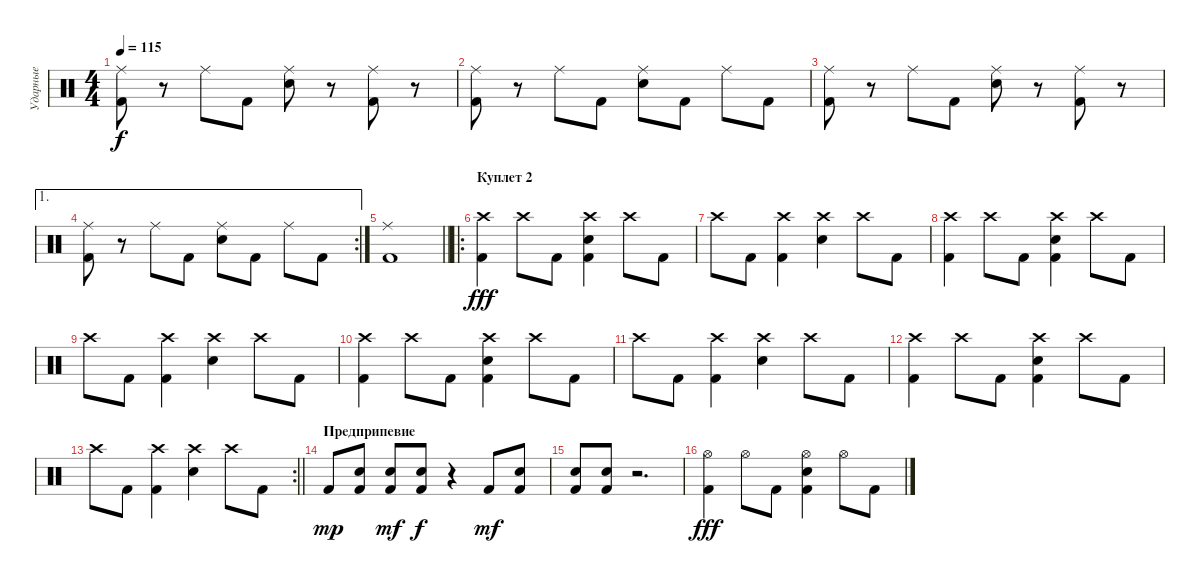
\track ("Ударные" "Ударные") {instrument percussion}
\staff {score}
\articulation defaults
\ts (4 4)
\tempo 115
\clef neutral
\ks c
("Ride (middle)" "Kick (hit) 2").8{dy f} r.8 "Ride (middle)".8 "Kick (hit) 2".8 ("Snare (hit) 2" "Ride (middle)").8 r.8 ("Ride (middle)" "Kick (hit) 2").8 r.8 |
("Ride (middle)" "Kick (hit) 2").8 r.8 "Ride (middle)".8 "Kick (hit) 2".8 ("Snare (hit) 2" "Ride (middle)").8 "Kick (hit) 2".8 "Ride (middle)".8 "Kick (hit) 2".8 |
("Ride (middle)" "Kick (hit) 2").8 r.8 "Ride (middle)".8 "Kick (hit) 2".8 ("Snare (hit) 2" "Ride (middle)").8 r.8 ("Ride (middle)" "Kick (hit) 2").8 r.8 |
\ae 1
\rc 2
("Ride (middle)" "Kick (hit) 2").8 r.8 "Ride (middle)".8 "Kick (hit) 2".8 ("Snare (hit) 2" "Ride (middle)").8 "Kick (hit) 2".8 "Ride (middle)".8 "Kick (hit) 2".8 |
\barLineRight lightlight
("Ride (middle)" "Kick (hit) 2").1 |
\ro
\section ("" "Куплет 2")
("Crash high (hit)" "Kick (hit) 2").4{dy fff} "Crash high (hit)".8 "Kick (hit) 2".8 ("Crash high (hit)" "Snare (hit) 2" "Kick (hit) 2").4 "Crash high (hit)".8 "Kick (hit) 2".8 |
"Crash high (hit)".8 "Kick (hit) 2".8 ("Crash high (hit)" "Kick (hit) 2").4 ("Crash high (hit)" "Snare (hit) 2").4 "Crash high (hit)".8 "Kick (hit) 2".8 |
("Crash high (hit)" "Kick (hit) 2").4 "Crash high (hit)".8 "Kick (hit) 2".8 ("Crash high (hit)" "Snare (hit) 2" "Kick (hit) 2").4 "Crash high (hit)".8 "Kick (hit) 2".8 |
"Crash high (hit)".8 "Kick (hit) 2".8 ("Crash high (hit)" "Kick (hit) 2").4 ("Crash high (hit)" "Snare (hit) 2").4 "Crash high (hit)".8 "Kick (hit) 2".8 |
("Crash high (hit)" "Kick (hit) 2").4 "Crash high (hit)".8 "Kick (hit) 2".8 ("Crash high (hit)" "Snare (hit) 2" "Kick (hit) 2").4 "Crash high (hit)".8 "Kick (hit) 2".8 |
"Crash high (hit)".8 "Kick (hit) 2".8 ("Crash high (hit)" "Kick (hit) 2").4 ("Crash high (hit)" "Snare (hit) 2").4 "Crash high (hit)".8 "Kick (hit) 2".8 |
("Crash high (hit)" "Kick (hit) 2").4 "Crash high (hit)".8 "Kick (hit) 2".8 ("Crash high (hit)" "Snare (hit) 2" "Kick (hit) 2").4 "Crash high (hit)".8 "Kick (hit) 2".8 |
\rc 2
\barLineRight lightlight "Crash high (hit)".8 "Kick (hit) 2".8
("Crash high (hit)" "Kick (hit) 2").4 ("Crash high (hit)" "Snare (hit) 2").4 "Crash high (hit)".8 "Kick (hit) 2".8 |
\section ("" "Предприпевие")
"Kick (hit) 2".8{dy mp} ("Snare (hit) 2" "Kick (hit) 2").8 ("Snare (hit) 2" "Kick (hit) 2").8{dy mf} ("Snare (hit) 2" "Kick (hit) 2").8{dy f} r.4 "Kick (hit) 2".8{dy mf} ("Snare (hit) 2" "Kick (hit) 2").8 |
("Snare (hit) 2" "Kick (hit) 2").8 ("Snare (hit) 2" "Kick (hit) 2").8 r.2{d} |
("Hi-Hat (open)" "Kick (hit) 2").4{dy fff} "Hi-Hat (open)".8 "Kick (hit) 2".8 ("Hi-Hat (open)" "Snare (hit) 2" "Kick (hit) 2").4 "Hi-Hat (open)".8 "Kick (hit) 2".8
